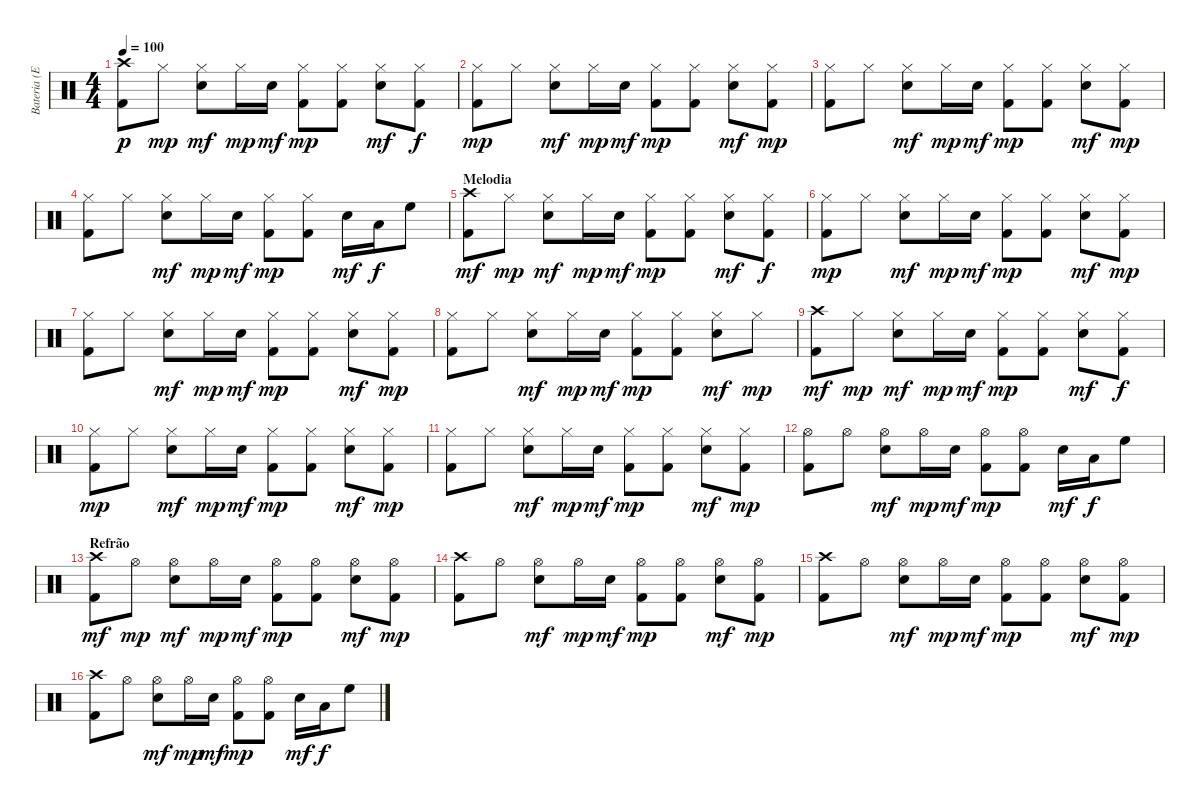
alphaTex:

\track ("Bateria (Eduardo)" "Bateria (E") {instrument percussion}
\staff {score}
\articulation defaults
\ts (4 4)
\tempo 100
\clef neutral
\ks c
("Crash high (hit)" "Kick (hit) 2").8{dy p} "Hi-Hat (closed)".8{dy mp} ("Hi-Hat (closed)" "Electric Snare (hit)").8{dy mf} "Hi-Hat (closed)".16{dy mp} "Electric Snare (hit)".16{dy mf} ("Hi-Hat (closed)" "Kick (hit) 2").8{dy mp} ("Hi-Hat (closed)" "Kick (hit) 2").8 ("Hi-Hat (closed)" "Electric Snare (hit)").8{dy mf} ("Hi-Hat (closed)" "Kick (hit) 2").8{dy f} |
("Hi-Hat (closed)" "Kick (hit) 2").8{dy mp} "Hi-Hat (closed)".8 ("Hi-Hat (closed)" "Electric Snare (hit)").8{dy mf} "Hi-Hat (closed)".16{dy mp} "Electric Snare (hit)".16{dy mf} ("Hi-Hat (closed)" "Kick (hit) 2").8{dy mp} ("Hi-Hat (closed)" "Kick (hit) 2").8 ("Hi-Hat (closed)" "Electric Snare (hit)").8{dy mf} ("Hi-Hat (closed)" "Kick (hit) 2").8{dy mp} |
("Hi-Hat (closed)" "Kick (hit) 2").8 "Hi-Hat (closed)".8 ("Hi-Hat (closed)" "Electric Snare (hit)").8{dy mf} "Hi-Hat (closed)".16{dy mp} "Electric Snare (hit)".16{dy mf} ("Hi-Hat (closed)" "Kick (hit) 2").8{dy mp} ("Hi-Hat (closed)" "Kick (hit) 2").8 ("Hi-Hat (closed)" "Electric Snare (hit)").8{dy mf} ("Hi-Hat (closed)" "Kick (hit) 2").8{dy mp} |
("Hi-Hat (closed)" "Kick (hit) 2").8 "Hi-Hat (closed)".8 ("Hi-Hat (closed)" "Electric Snare (hit)").8{dy mf} "Hi-Hat (closed)".16{dy mp} "Electric Snare (hit)".16{dy mf} ("Hi-Hat (closed)" "Kick (hit) 2").8{dy mp} ("Hi-Hat (closed)" "Kick (hit) 2").8 "Electric Snare (hit)".16{dy mf} "Low Tom (hit)".16{dy f} "High Floor Tom (hit)".8 |
\section ("" "Melodia")
("Crash high (hit)" "Kick (hit) 2").8{dy mf} "Hi-Hat (closed)".8{dy mp} ("Hi-Hat (closed)" "Electric Snare (hit)").8{dy mf} "Hi-Hat (closed)".16{dy mp} "Electric Snare (hit)".16{dy mf} ("Hi-Hat (closed)" "Kick (hit) 2").8{dy mp} ("Hi-Hat (closed)" "Kick (hit) 2").8 ("Hi-Hat (closed)" "Electric Snare (hit)").8{dy mf} ("Hi-Hat (closed)" "Kick (hit) 2").8{dy f} |
("Hi-Hat (closed)" "Kick (hit) 2").8{dy mp} "Hi-Hat (closed)".8 ("Hi-Hat (closed)" "Electric Snare (hit)").8{dy mf} "Hi-Hat (closed)".16{dy mp} "Electric Snare (hit)".16{dy mf} ("Hi-Hat (closed)" "Kick (hit) 2").8{dy mp} ("Hi-Hat (closed)" "Kick (hit) 2").8 ("Hi-Hat (closed)" "Electric Snare (hit)").8{dy mf} ("Hi-Hat (closed)" "Kick (hit) 2").8{dy mp} |
("Hi-Hat (closed)" "Kick (hit) 2").8 "Hi-Hat (closed)".8 ("Hi-Hat (closed)" "Electric Snare (hit)").8{dy mf} "Hi-Hat (closed)".16{dy mp} "Electric Snare (hit)".16{dy mf} ("Hi-Hat (closed)" "Kick (hit) 2").8{dy mp} ("Hi-Hat (closed)" "Kick (hit) 2").8 ("Hi-Hat (closed)" "Electric Snare (hit)").8{dy mf} ("Hi-Hat (closed)" "Kick (hit) 2").8{dy mp} |
("Hi-Hat (closed)" "Kick (hit) 2").8 "Hi-Hat (closed)".8 ("Hi-Hat (closed)" "Electric Snare (hit)").8{dy mf} "Hi-Hat (closed)".16{dy mp} "Electric Snare (hit)".16{dy mf} ("Hi-Hat (closed)" "Kick (hit) 2").8{dy mp} ("Hi-Hat (closed)" "Kick (hit) 2").8 ("Hi-Hat (closed)" "Electric Snare (hit)").8{dy mf} "Hi-Hat (closed)".8{dy mp} |
("Crash high (hit)" "Kick (hit) 2").8{dy mf} "Hi-Hat (closed)".8{dy mp} ("Hi-Hat (closed)" "Electric Snare (hit)").8{dy mf} "Hi-Hat (closed)".16{dy mp} "Electric Snare (hit)".16{dy mf} ("Hi-Hat (closed)" "Kick (hit) 2").8{dy mp} ("Hi-Hat (closed)" "Kick (hit) 2").8 ("Hi-Hat (closed)" "Electric Snare (hit)").8{dy mf} ("Hi-Hat (closed)" "Kick (hit) 2").8{dy f} |
("Hi-Hat (closed)" "Kick (hit) 2").8{dy mp} "Hi-Hat (closed)".8 ("Hi-Hat (closed)" "Electric Snare (hit)").8{dy mf} "Hi-Hat (closed)".16{dy mp} "Electric Snare (hit)".16{dy mf} ("Hi-Hat (closed)" "Kick (hit) 2").8{dy mp} ("Hi-Hat (closed)" "Kick (hit) 2").8 ("Hi-Hat (closed)" "Electric Snare (hit)").8{dy mf} ("Hi-Hat (closed)" "Kick (hit) 2").8{dy mp} |
("Hi-Hat (closed)" "Kick (hit) 2").8 "Hi-Hat (closed)".8 ("Hi-Hat (closed)" "Electric Snare (hit)").8{dy mf} "Hi-Hat (closed)".16{dy mp} "Electric Snare (hit)".16{dy mf} ("Hi-Hat (closed)" "Kick (hit) 2").8{dy mp} ("Hi-Hat (closed)" "Kick (hit) 2").8 ("Hi-Hat (closed)" "Electric Snare (hit)").8{dy mf} ("Hi-Hat (closed)" "Kick (hit) 2").8{dy mp} |
("Hi-Hat (open)" "Kick (hit) 2").8 "Hi-Hat (open)".8 ("Hi-Hat (open)" "Electric Snare (hit)").8{dy mf} "Hi-Hat (open)".16{dy mp} "Electric Snare (hit)".16{dy mf} ("Hi-Hat (open)" "Kick (hit) 2").8{dy mp} ("Hi-Hat (open)" "Kick (hit) 2").8 "Electric Snare (hit)".16{dy mf} "Low Tom (hit)".16{dy f} "High Floor Tom (hit)".8 |
\section ("" "Refrão")
("Crash high (hit)" "Kick (hit) 2").8{dy mf} "Hi-Hat (open)".8{dy mp} ("Hi-Hat (open)" "Electric Snare (hit)").8{dy mf} "Hi-Hat (open)".16{dy mp} "Electric Snare (hit)".16{dy mf} ("Hi-Hat (open)" "Kick (hit) 2").8{dy mp} ("Hi-Hat (open)" "Kick (hit) 2").8 ("Hi-Hat (open)" "Electric Snare (hit)").8{dy mf} ("Hi-Hat (open)" "Kick (hit) 2").8{dy mp} |
("Crash high (hit)" "Kick (hit) 2").8 "Hi-Hat (open)".8 ("Hi-Hat (open)" "Electric Snare (hit)").8{dy mf} "Hi-Hat (open)".16{dy mp} "Electric Snare (hit)".16{dy mf} ("Hi-Hat (open)" "Kick (hit) 2").8{dy mp} ("Hi-Hat (open)" "Kick (hit) 2").8 ("Hi-Hat (open)" "Electric Snare (hit)").8{dy mf} ("Hi-Hat (open)" "Kick (hit) 2").8{dy mp} |
("Crash high (hit)" "Kick (hit) 2").8 "Hi-Hat (open)".8 ("Hi-Hat (open)" "Electric Snare (hit)").8{dy mf} "Hi-Hat (open)".16{dy mp} "Electric Snare (hit)".16{dy mf} ("Hi-Hat (open)" "Kick (hit) 2").8{dy mp} ("Hi-Hat (open)" "Kick (hit) 2").8 ("Hi-Hat (open)" "Electric Snare (hit)").8{dy mf} ("Hi-Hat (open)" "Kick (hit) 2").8{dy mp} |
("Crash high (hit)" "Kick (hit) 2").8 "Hi-Hat (open)".8 ("Hi-Hat (open)" "Electric Snare (hit)").8{dy mf} "Hi-Hat (open)".16{dy mp} "Electric Snare (hit)".16{dy mf} ("Hi-Hat (open)" "Kick (hit) 2").8{dy mp} ("Hi-Hat (open)" "Kick (hit) 2").8 "Electric Snare (hit)".16{dy mf} "Low Tom (hit)".16{dy f} "High Floor Tom (hit)".8
